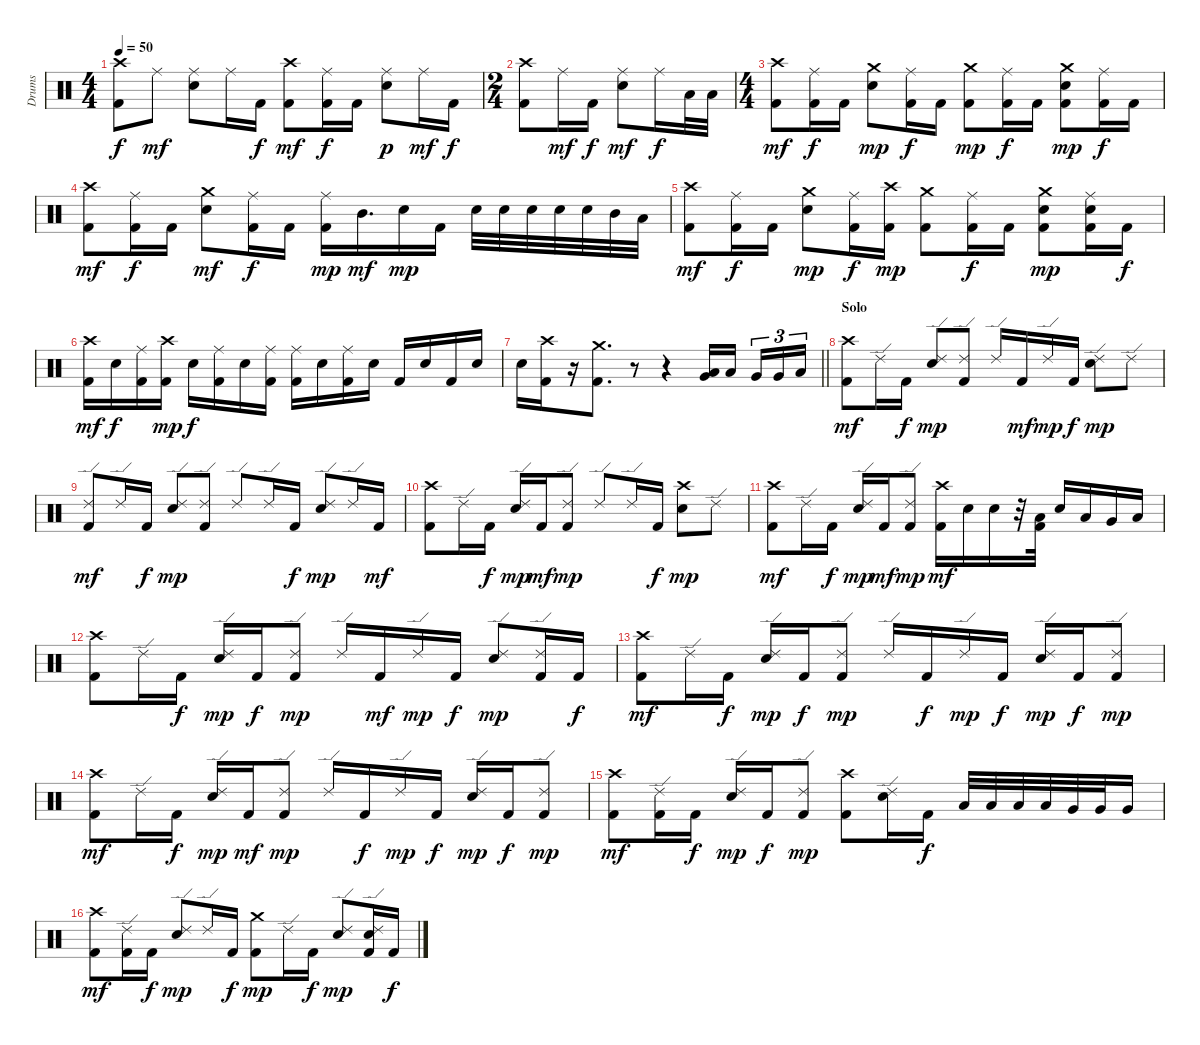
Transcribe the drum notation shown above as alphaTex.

\track ("Drums" "Drums") {instrument percussion}
\staff {score}
\articulation defaults
\ts (4 4)
\tempo 50
\clef neutral
\ks c
("Crash high (hit)" "Kick (hit) 2").8{dy f} "Ride (middle)".8{dy mf} ("Ride (middle)" "Electric Snare (hit)").8 "Ride (middle)".16 "Kick (hit) 2".16{dy f} ("Crash high (hit)" "Kick (hit) 2").8{dy mf} ("Ride (middle)" "Kick (hit) 2").16{dy f} "Kick (hit) 2".16 ("Ride (middle)" "Electric Snare (hit)").8{dy p} "Ride (middle)".16{dy mf} "Kick (hit) 2".16{dy f} |
\ts (2 4)
("Crash high (hit)" "Kick (hit) 2").8 "Ride (middle)".16{dy mf} "Kick (hit) 2".16{dy f} ("Ride (middle)" "Electric Snare (hit)").8{dy mf} "Ride (middle)".16{dy f} "Low Tom (hit)".32 "Low Tom (hit)".32 |
\ts (4 4)
("Crash high (hit)" "Kick (hit) 2").8{dy mf} ("Ride (middle)" "Kick (hit) 2").16{dy f} "Kick (hit) 2".16 ("Crash medium (hit)" "Electric Snare (hit)").8{dy mp} ("Ride (middle)" "Kick (hit) 2").16{dy f} "Kick (hit) 2".16 ("Crash medium (hit)" "Kick (hit) 2").8{dy mp} ("Ride (middle)" "Kick (hit) 2").16{dy f} "Kick (hit) 2".16 ("Crash medium (hit)" "Electric Snare (hit)" "Kick (hit) 2").8{dy mp} ("Ride (middle)" "Kick (hit) 2").16{dy f} "Kick (hit) 2".16 |
("Crash high (hit)" "Kick (hit) 2").8{dy mf} ("Ride (middle)" "Kick (hit) 2").16{dy f} "Kick (hit) 2".16 ("Crash medium (hit)" "Electric Snare (hit)").8{dy mf} ("Ride (middle)" "Kick (hit) 2").16{dy f} "Kick (hit) 2".16 ("Ride (middle)" "Kick (hit) 2").16{dy mp} "Mid Tom (hit)".16{d dy mf} "Electric Snare (hit)".16{dy mp} "Kick (hit) 2".16 "Electric Snare (hit)".32 "Electric Snare (hit)".32 "Electric Snare (hit)".32 "Electric Snare (hit)".32 "Electric Snare (hit)".32 "Mid Tom (hit)".32 "Low Tom (hit)".32 |
("Crash high (hit)" "Kick (hit) 2").8{dy mf} ("Ride (middle)" "Kick (hit) 2").16{dy f} "Kick (hit) 2".16 ("Crash medium (hit)" "Electric Snare (hit)").8{dy mp} ("Ride (middle)" "Kick (hit) 2").16{dy f} ("Crash high (hit)" "Kick (hit) 2").16{dy mp} ("Crash medium (hit)" "Kick (hit) 2").8 ("Ride (middle)" "Kick (hit) 2").16{dy f} "Kick (hit) 2".16 ("Crash medium (hit)" "Electric Snare (hit)" "Kick (hit) 2").8{dy mp} ("Ride (middle)" "Electric Snare (hit)" "Kick (hit) 2").16 "Kick (hit) 2".16{dy f} |
("Crash high (hit)" "Kick (hit) 2").16{dy mf} "Electric Snare (hit)".16{dy f} ("Ride (middle)" "Kick (hit) 2").16 ("Crash high (hit)" "Kick (hit) 2").16{dy mp} "Electric Snare (hit)".16{dy f} ("Ride (middle)" "Kick (hit) 2").16 "Electric Snare (hit)".16 ("Ride (middle)" "Kick (hit) 2").16 ("Ride (middle)" "Kick (hit) 2").16 "Electric Snare (hit)".16 ("Ride (middle)" "Kick (hit) 2").16 "Electric Snare (hit)".16 "Kick (hit) 2".16 "Electric Snare (hit)".16 "Kick (hit) 2".16 "Electric Snare (hit)".16 |
\barLineRight lightlight "Electric Snare (hit)".16
("Crash high (hit)" "Kick (hit) 2").16 r.16 ("Crash medium (hit)" "Kick (hit) 2").8{d} r.8 r.4 ("Very Low Tom (hit)" "Low Floor Tom (hit)").16 "Low Floor Tom (hit)".16{beam splitsecondary} "Very Low Tom (hit)".16{tu (3 2)} "Very Low Tom (hit)".16{tu (3 2)} "Low Floor Tom (hit)".16{tu (3 2)} |
\section ("" "Solo")
("Crash high (hit)" "Kick (hit) 2").8{dy mf} "Ride (edge) 2".16 "Kick (hit) 2".16{dy f} ("Ride (edge) 2" "Electric Snare (hit)").8{dy mp} ("Ride (edge) 2" "Kick (hit) 2").8 "Ride (edge) 2".16 "Kick (hit) 2".16{dy mf} "Ride (edge) 2".16{dy mp} "Kick (hit) 2".16{dy f} ("Ride (edge) 2" "Electric Snare (hit)").8{dy mp} "Ride (edge) 2".8 |
("Ride (edge) 2" "Kick (hit) 2").8{dy mf} "Ride (edge) 2".16 "Kick (hit) 2".16{dy f} ("Ride (edge) 2" "Electric Snare (hit)").8{dy mp} ("Ride (edge) 2" "Kick (hit) 2").8 "Ride (edge) 2".8 "Ride (edge) 2".16 "Kick (hit) 2".16{dy f} ("Ride (edge) 2" "Electric Snare (hit)").8{dy mp} "Ride (edge) 2".16 "Kick (hit) 2".16{dy mf} |
("Crash high (hit)" "Kick (hit) 2").8 "Ride (edge) 2".16 "Kick (hit) 2".16{dy f} ("Ride (edge) 2" "Electric Snare (hit)").16{dy mp} "Kick (hit) 2".16{dy mf} ("Ride (edge) 2" "Kick (hit) 2").8{dy mp} "Ride (edge) 2".8 "Ride (edge) 2".16 "Kick (hit) 2".16{dy f} ("Crash high (hit)" "Electric Snare (hit)").8{dy mp} "Ride (edge) 2".8 |
("Crash high (hit)" "Kick (hit) 2").8{dy mf} "Ride (edge) 2".16 "Kick (hit) 2".16{dy f} ("Ride (edge) 2" "Electric Snare (hit)").16{dy mp} "Kick (hit) 2".16{dy mf} ("Ride (edge) 2" "Kick (hit) 2").8{dy mp} ("Crash high (hit)" "Kick (hit) 2").16{dy mf} "Electric Snare (hit)".16 "Electric Snare (hit)".16 r.32 ("Low Tom (hit)" "Kick (hit) 2").32 "Electric Snare (hit)".16 "Low Tom (hit)".16 "Very Low Tom (hit)".16 "Low Floor Tom (hit)".16 |
("Crash high (hit)" "Kick (hit) 2").8 "Ride (edge) 2".16 "Kick (hit) 2".16{dy f} ("Ride (edge) 2" "Electric Snare (hit)").16{dy mp} "Kick (hit) 2".16{dy f} ("Ride (edge) 2" "Kick (hit) 2").8{dy mp} "Ride (edge) 2".16 "Kick (hit) 2".16{dy mf} "Ride (edge) 2".16{dy mp} "Kick (hit) 2".16{dy f} ("Ride (edge) 2" "Electric Snare (hit)").8{dy mp} ("Ride (edge) 2" "Kick (hit) 2").16 "Kick (hit) 2".16{dy f} |
("Crash high (hit)" "Kick (hit) 2").8{dy mf} "Ride (edge) 2".16 "Kick (hit) 2".16{dy f} ("Ride (edge) 2" "Electric Snare (hit)").16{dy mp} "Kick (hit) 2".16{dy f} ("Ride (edge) 2" "Kick (hit) 2").8{dy mp} "Ride (edge) 2".16 "Kick (hit) 2".16{dy f} "Ride (edge) 2".16{dy mp} "Kick (hit) 2".16{dy f} ("Ride (edge) 2" "Electric Snare (hit)").16{dy mp} "Kick (hit) 2".16{dy f} ("Ride (edge) 2" "Kick (hit) 2").8{dy mp} |
("Crash high (hit)" "Kick (hit) 2").8{dy mf} "Ride (edge) 2".16 "Kick (hit) 2".16{dy f} ("Ride (edge) 2" "Electric Snare (hit)").16{dy mp} "Kick (hit) 2".16{dy mf} ("Ride (edge) 2" "Kick (hit) 2").8{dy mp} "Ride (edge) 2".16 "Kick (hit) 2".16{dy f} "Ride (edge) 2".16{dy mp} "Kick (hit) 2".16{dy f} ("Ride (edge) 2" "Electric Snare (hit)").16{dy mp} "Kick (hit) 2".16{dy f} ("Ride (edge) 2" "Kick (hit) 2").8{dy mp} |
("Crash high (hit)" "Kick (hit) 2").8{dy mf} ("Ride (edge) 2" "Kick (hit) 2").16 "Kick (hit) 2".16{dy f} ("Ride (edge) 2" "Electric Snare (hit)").16{dy mp} "Kick (hit) 2".16{dy f} ("Ride (edge) 2" "Kick (hit) 2").8{dy mp} ("Crash high (hit)" "Kick (hit) 2").8 ("Ride (edge) 2" "Electric Snare (hit)").16 "Kick (hit) 2".16{dy f} "Low Tom (hit)".32 "Low Tom (hit)".32 "Low Tom (hit)".32 "Low Tom (hit)".32 "Very Low Tom (hit)".32 "Very Low Tom (hit)".32 "Very Low Tom (hit)".16 |
("Crash high (hit)" "Kick (hit) 2").8{dy mf} ("Ride (edge) 2" "Kick (hit) 2").16 "Kick (hit) 2".16{dy f} ("Ride (edge) 2" "Electric Snare (hit)").8{dy mp} "Ride (edge) 2".16 "Kick (hit) 2".16{dy f} ("Crash medium (hit)" "Kick (hit) 2").8{dy mp} "Ride (edge) 2".16 "Kick (hit) 2".16{dy f} ("Ride (edge) 2" "Electric Snare (hit)").8{dy mp} ("Ride (edge) 2" "Electric Snare (hit)" "Kick (hit) 2").16 "Kick (hit) 2".16{dy f}
